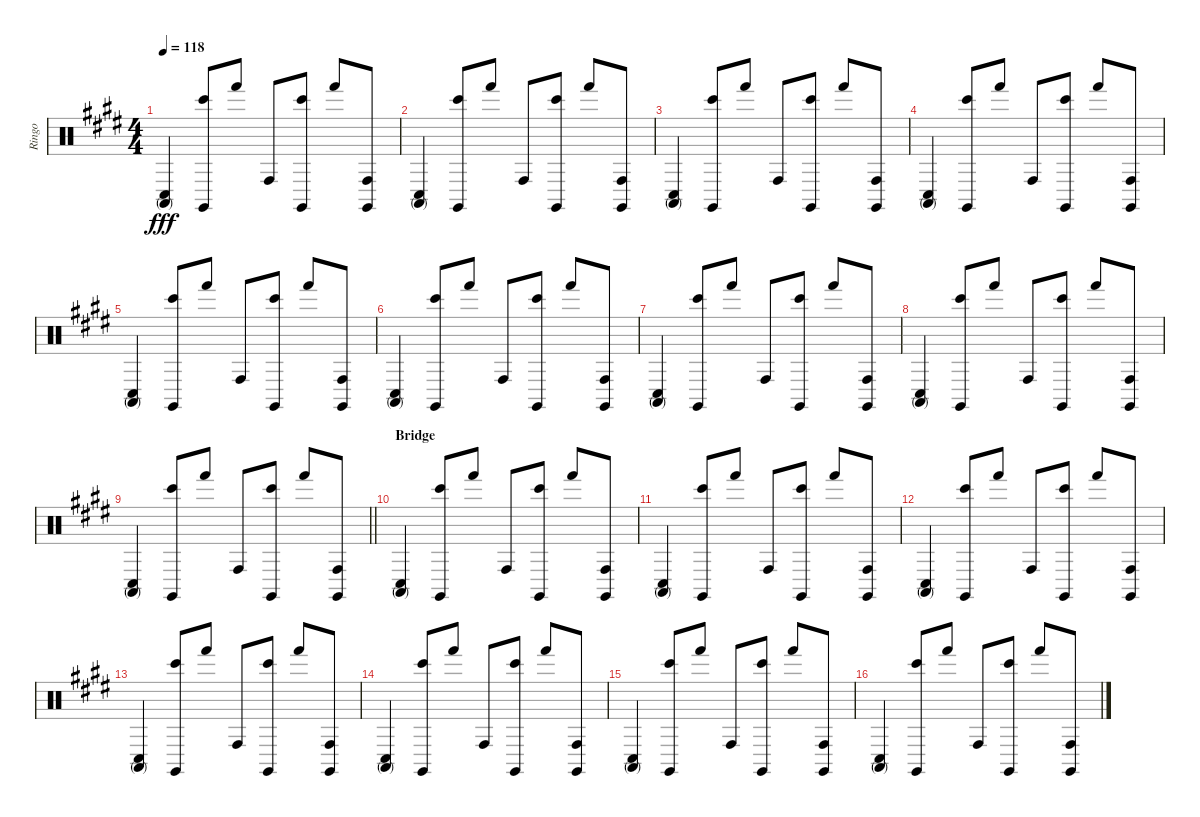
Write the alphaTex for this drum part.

\track ("Ringo" "Ringo") {instrument percussion}
\staff {score}
\articulation defaults
\ts (4 4)
\tempo 118
\clef neutral
\ks e
("Conga low (hit)" "Conga high (mute)").4{dy fff} ("Claves (hit)" "Bongo High (hit)").8 "Hand (hit)".8 "Conga high (hit)".8 ("Claves (hit)" "Bongo High (hit)").8 "Hand (hit)".8 ("Claves (hit)" "Conga high (hit)").8 |
("Conga low (hit)" "Conga high (mute)").4 ("Claves (hit)" "Bongo High (hit)").8 "Hand (hit)".8 "Conga high (hit)".8 ("Claves (hit)" "Bongo High (hit)").8 "Hand (hit)".8 ("Claves (hit)" "Conga high (hit)").8 |
("Conga low (hit)" "Conga high (mute)").4 ("Claves (hit)" "Bongo High (hit)").8 "Hand (hit)".8 "Conga high (hit)".8 ("Claves (hit)" "Bongo High (hit)").8 "Hand (hit)".8 ("Claves (hit)" "Conga high (hit)").8 |
("Conga low (hit)" "Conga high (mute)").4 ("Claves (hit)" "Bongo High (hit)").8 "Hand (hit)".8 "Conga high (hit)".8 ("Claves (hit)" "Bongo High (hit)").8 "Hand (hit)".8 ("Claves (hit)" "Conga high (hit)").8 |
("Conga low (hit)" "Conga high (mute)").4 ("Claves (hit)" "Bongo High (hit)").8 "Hand (hit)".8 "Conga high (hit)".8 ("Claves (hit)" "Bongo High (hit)").8 "Hand (hit)".8 ("Claves (hit)" "Conga high (hit)").8 |
("Conga low (hit)" "Conga high (mute)").4 ("Claves (hit)" "Bongo High (hit)").8 "Hand (hit)".8 "Conga high (hit)".8 ("Claves (hit)" "Bongo High (hit)").8 "Hand (hit)".8 ("Claves (hit)" "Conga high (hit)").8 |
("Conga low (hit)" "Conga high (mute)").4 ("Claves (hit)" "Bongo High (hit)").8 "Hand (hit)".8 "Conga high (hit)".8 ("Claves (hit)" "Bongo High (hit)").8 "Hand (hit)".8 ("Claves (hit)" "Conga high (hit)").8 |
("Conga low (hit)" "Conga high (mute)").4 ("Claves (hit)" "Bongo High (hit)").8 "Hand (hit)".8 "Conga high (hit)".8 ("Claves (hit)" "Bongo High (hit)").8 "Hand (hit)".8 ("Claves (hit)" "Conga high (hit)").8 |
\barLineRight lightlight
("Conga low (hit)" "Conga high (mute)").4 ("Claves (hit)" "Bongo High (hit)").8 "Hand (hit)".8 "Conga high (hit)".8 ("Claves (hit)" "Bongo High (hit)").8 "Hand (hit)".8 ("Claves (hit)" "Conga high (hit)").8 |
\section ("" "Bridge")
("Conga low (hit)" "Conga high (mute)").4 ("Claves (hit)" "Bongo High (hit)").8 "Hand (hit)".8 "Conga high (hit)".8 ("Claves (hit)" "Bongo High (hit)").8 "Hand (hit)".8 ("Claves (hit)" "Conga high (hit)").8 |
("Conga low (hit)" "Conga high (mute)").4 ("Claves (hit)" "Bongo High (hit)").8 "Hand (hit)".8 "Conga high (hit)".8 ("Claves (hit)" "Bongo High (hit)").8 "Hand (hit)".8 ("Claves (hit)" "Conga high (hit)").8 |
("Conga low (hit)" "Conga high (mute)").4 ("Claves (hit)" "Bongo High (hit)").8 "Hand (hit)".8 "Conga high (hit)".8 ("Claves (hit)" "Bongo High (hit)").8 "Hand (hit)".8 ("Claves (hit)" "Conga high (hit)").8 |
("Conga low (hit)" "Conga high (mute)").4 ("Claves (hit)" "Bongo High (hit)").8 "Hand (hit)".8 "Conga high (hit)".8 ("Claves (hit)" "Bongo High (hit)").8 "Hand (hit)".8 ("Claves (hit)" "Conga high (hit)").8 |
("Conga low (hit)" "Conga high (mute)").4 ("Claves (hit)" "Bongo High (hit)").8 "Hand (hit)".8 "Conga high (hit)".8 ("Claves (hit)" "Bongo High (hit)").8 "Hand (hit)".8 ("Claves (hit)" "Conga high (hit)").8 |
("Conga low (hit)" "Conga high (mute)").4 ("Claves (hit)" "Bongo High (hit)").8 "Hand (hit)".8 "Conga high (hit)".8 ("Claves (hit)" "Bongo High (hit)").8 "Hand (hit)".8 ("Claves (hit)" "Conga high (hit)").8 |
("Conga low (hit)" "Conga high (mute)").4 ("Claves (hit)" "Bongo High (hit)").8 "Hand (hit)".8 "Conga high (hit)".8 ("Claves (hit)" "Bongo High (hit)").8 "Hand (hit)".8 ("Claves (hit)" "Conga high (hit)").8
